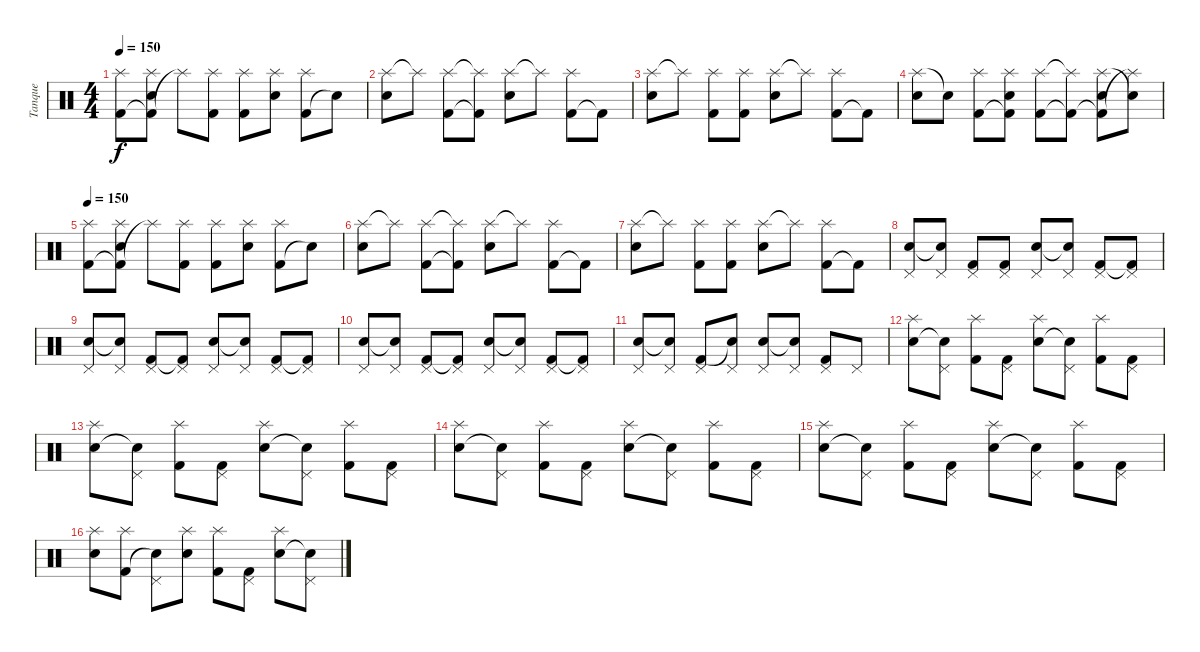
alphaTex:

\track ("Tanque" "Tanque") {instrument percussion}
\staff {score}
\articulation defaults
\ts (4 4)
\tempo 150
\clef neutral
\ks c
("Kick (hit) 2" "Splash (hit)").8{dy f} ("Kick (hit) 2"{t} "Splash (hit)" "Snare (hit) 2").8 "Splash (hit)"{t}.8 ("Kick (hit) 2" "Splash (hit)").8 ("Kick (hit) 2" "Splash (hit)").8 ("Splash (hit)" "Snare (hit) 2").8 ("Kick (hit) 2" "Splash (hit)").8 "Snare (hit)"{t}.8 |
("Splash (hit)" "Snare (hit) 2").8 "Splash (hit)"{t}.8 ("Kick (hit) 2" "Splash (hit)").8 ("Kick (hit) 2"{t} "Splash (hit)"{t}).8 ("Splash (hit)" "Snare (hit) 2").8 "Splash (hit)"{t}.8 ("Kick (hit) 2" "Splash (hit)").8 "Kick (hit) 2"{t}.8 |
("Splash (hit)" "Snare (hit) 2").8 "Splash (hit)"{t}.8 ("Kick (hit) 2" "Splash (hit)").8 ("Kick (hit) 2" "Splash (hit)").8 ("Splash (hit)" "Snare (hit) 2").8 "Splash (hit)"{t}.8 ("Kick (hit) 2" "Splash (hit)").8 "Kick (hit) 2"{t}.8 |
("Splash (hit)" "Snare (hit) 2").8 "Snare (hit)"{t}.8 ("Kick (hit) 2" "Splash (hit)").8 ("Kick (hit) 2"{t} "Splash (hit)" "Snare (hit) 2").8 ("Kick (hit) 2" "Splash (hit)").8 ("Kick (hit) 2"{t} "Splash (hit)"{t}).8 ("Kick (hit) 2"{t} "Splash (hit)" "Snare (hit) 2").8 ("Splash (hit)"{t} "Snare (hit) 2"{t}).8 |
\tempo 150
("Kick (hit) 2" "Splash (hit)").8 ("Kick (hit) 2"{t} "Splash (hit)" "Snare (hit) 2").8 "Splash (hit)"{t}.8 ("Kick (hit) 2" "Splash (hit)").8 ("Kick (hit) 2" "Splash (hit)").8 ("Splash (hit)" "Snare (hit) 2").8 ("Kick (hit) 2" "Splash (hit)").8 "Snare (hit)"{t}.8 |
("Splash (hit)" "Snare (hit) 2").8 "Splash (hit)"{t}.8 ("Kick (hit) 2" "Splash (hit)").8 ("Kick (hit) 2"{t} "Splash (hit)"{t}).8 ("Splash (hit)" "Snare (hit) 2").8 "Splash (hit)"{t}.8 ("Kick (hit) 2" "Splash (hit)").8 "Kick (hit) 2"{t}.8 |
("Splash (hit)" "Snare (hit) 2").8 "Splash (hit)"{t}.8 ("Kick (hit) 2" "Splash (hit)").8 ("Kick (hit) 2" "Splash (hit)").8 ("Splash (hit)" "Snare (hit) 2").8 "Splash (hit)"{t}.8 ("Kick (hit) 2" "Splash (hit)").8 "Kick (hit) 2"{t}.8 |
("Pedal Hi-Hat (hit)" "Snare (hit) 2").8 ("Pedal Hi-Hat (hit)" "Snare (hit)"{t}).8 ("Pedal Hi-Hat (hit)" "Kick (hit) 2").8 ("Pedal Hi-Hat (hit)" "Kick (hit) 2").8 ("Pedal Hi-Hat (hit)" "Snare (hit) 2").8 ("Pedal Hi-Hat (hit)" "Snare (hit) 2"{t}).8 ("Pedal Hi-Hat (hit)" "Kick (hit) 2").8 ("Pedal Hi-Hat (hit)" "Kick (hit) 2"{t}).8 |
("Pedal Hi-Hat (hit)" "Snare (hit) 2").8 ("Pedal Hi-Hat (hit)" "Snare (hit)"{t}).8 ("Pedal Hi-Hat (hit)" "Kick (hit) 2").8 ("Pedal Hi-Hat (hit)" "Kick (hit) 2"{t}).8 ("Pedal Hi-Hat (hit)" "Snare (hit) 2").8 ("Pedal Hi-Hat (hit)" "Snare (hit) 2"{t}).8 ("Pedal Hi-Hat (hit)" "Kick (hit) 2").8 ("Pedal Hi-Hat (hit)" "Kick (hit) 2"{t}).8 |
("Pedal Hi-Hat (hit)" "Snare (hit) 2").8 ("Pedal Hi-Hat (hit)" "Snare (hit)"{t}).8 ("Pedal Hi-Hat (hit)" "Kick (hit) 2").8 ("Pedal Hi-Hat (hit)" "Kick (hit) 2"{t}).8 ("Pedal Hi-Hat (hit)" "Snare (hit) 2").8 ("Pedal Hi-Hat (hit)" "Snare (hit) 2"{t}).8 ("Pedal Hi-Hat (hit)" "Kick (hit) 2").8 ("Pedal Hi-Hat (hit)" "Kick (hit) 2"{t}).8 |
("Pedal Hi-Hat (hit)" "Snare (hit) 2").8 ("Pedal Hi-Hat (hit)" "Snare (hit)"{t}).8 ("Pedal Hi-Hat (hit)" "Kick (hit) 2").8 ("Pedal Hi-Hat (hit)" "Snare (hit)"{t}).8 ("Pedal Hi-Hat (hit)" "Snare (hit) 2").8 ("Pedal Hi-Hat (hit)" "Snare (hit)"{t}).8 ("Pedal Hi-Hat (hit)" "Kick (hit) 2").8 "Pedal Hi-Hat (hit)".8 |
("Splash (hit)" "Snare (hit) 2").8 ("Pedal Hi-Hat (hit)" "Snare (hit)"{t}).8 ("Splash (hit)" "Kick (hit) 2").8 ("Pedal Hi-Hat (hit)" "Kick (hit) 2").8 ("Splash (hit)" "Snare (hit) 2").8 ("Pedal Hi-Hat (hit)" "Snare (hit)"{t}).8 ("Splash (hit)" "Kick (hit) 2").8 ("Pedal Hi-Hat (hit)" "Kick (hit) 2").8 |
("Splash (hit)" "Snare (hit) 2").8 ("Pedal Hi-Hat (hit)" "Snare (hit)"{t}).8 ("Splash (hit)" "Kick (hit) 2").8 ("Pedal Hi-Hat (hit)" "Kick (hit) 2").8 ("Splash (hit)" "Snare (hit) 2").8 ("Pedal Hi-Hat (hit)" "Snare (hit)"{t}).8 ("Splash (hit)" "Kick (hit) 2").8 ("Pedal Hi-Hat (hit)" "Kick (hit) 2").8 |
("Splash (hit)" "Snare (hit) 2").8 ("Pedal Hi-Hat (hit)" "Snare (hit)"{t}).8 ("Splash (hit)" "Kick (hit) 2").8 ("Pedal Hi-Hat (hit)" "Kick (hit) 2").8 ("Splash (hit)" "Snare (hit) 2").8 ("Pedal Hi-Hat (hit)" "Snare (hit)"{t}).8 ("Splash (hit)" "Kick (hit) 2").8 ("Pedal Hi-Hat (hit)" "Kick (hit) 2").8 |
("Splash (hit)" "Snare (hit) 2").8 ("Pedal Hi-Hat (hit)" "Snare (hit)"{t}).8 ("Splash (hit)" "Kick (hit) 2").8 ("Pedal Hi-Hat (hit)" "Kick (hit) 2").8 ("Splash (hit)" "Snare (hit) 2").8 ("Pedal Hi-Hat (hit)" "Snare (hit)"{t}).8 ("Splash (hit)" "Kick (hit) 2").8 ("Pedal Hi-Hat (hit)" "Kick (hit) 2").8 |
("Splash (hit)" "Snare (hit) 2").8 ("Splash (hit)" "Kick (hit) 2").8 ("Pedal Hi-Hat (hit)" "Snare (hit) 2"{t}).8 ("Splash (hit)" "Snare (hit) 2").8 ("Splash (hit)" "Kick (hit) 2").8 ("Pedal Hi-Hat (hit)" "Kick (hit) 2").8 ("Splash (hit)" "Snare (hit) 2").8 ("Pedal Hi-Hat (hit)" "Snare (hit) 2"{t}).8
